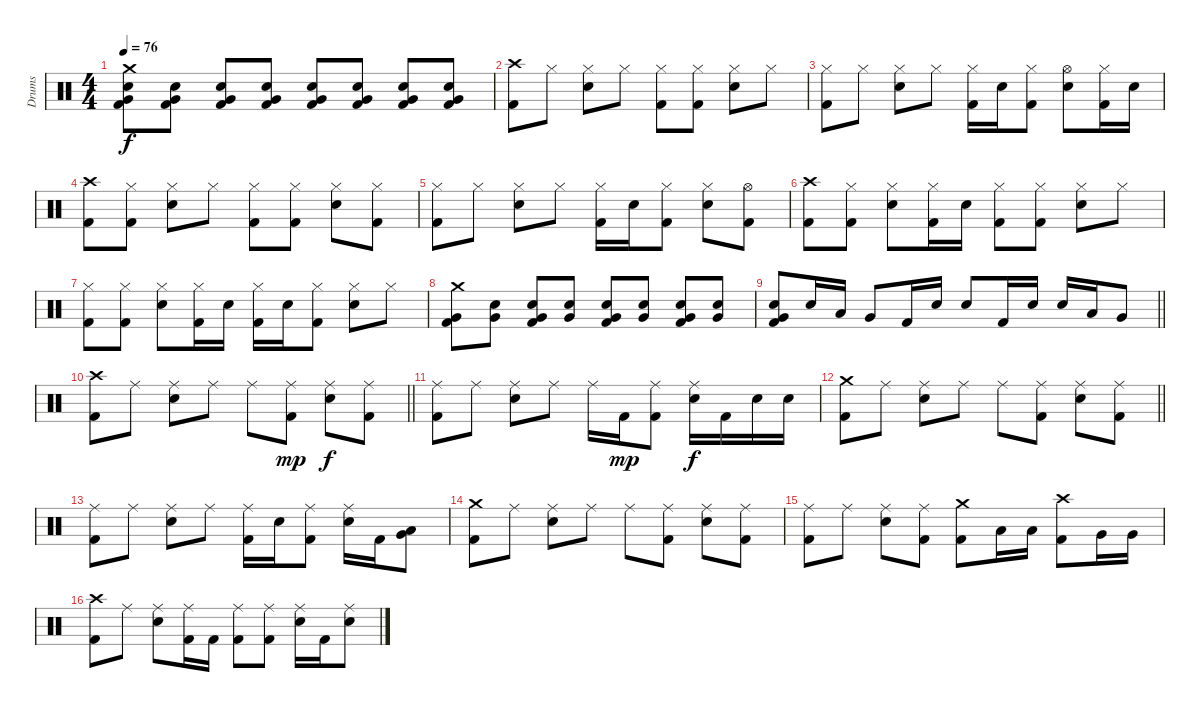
\track ("Drums" "Drums") {instrument percussion}
\staff {score}
\articulation defaults
\ts (4 4)
\tempo 76
\clef neutral
\ks c
("Crash medium (hit)" "Very Low Tom (hit)" "Snare (hit) 2" "Kick (hit) 2").8{dy f} ("Very Low Tom (hit)" "Snare (hit) 2" "Kick (hit) 2").8 ("Very Low Tom (hit)" "Snare (hit) 2" "Kick (hit) 2").8 ("Very Low Tom (hit)" "Snare (hit) 2" "Kick (hit) 2").8 ("Very Low Tom (hit)" "Snare (hit) 2" "Kick (hit) 2").8 ("Very Low Tom (hit)" "Snare (hit) 2" "Kick (hit) 2").8 ("Very Low Tom (hit)" "Snare (hit) 2" "Kick (hit) 2").8 ("Very Low Tom (hit)" "Snare (hit) 2" "Kick (hit) 2").8 |
("Crash high (hit)" "Kick (hit) 2").8 "Hi-Hat (closed)".8 ("Hi-Hat (closed)" "Snare (hit) 2").8 "Hi-Hat (closed)".8 ("Hi-Hat (closed)" "Kick (hit) 2").8 ("Hi-Hat (closed)" "Kick (hit) 2").8 ("Hi-Hat (closed)" "Snare (hit) 2").8 "Hi-Hat (closed)".8 |
("Hi-Hat (closed)" "Kick (hit) 2").8 "Hi-Hat (closed)".8 ("Hi-Hat (closed)" "Snare (hit) 2").8 "Hi-Hat (closed)".8 ("Hi-Hat (closed)" "Kick (hit) 2").16 "Snare (hit) 2".16 ("Hi-Hat (closed)" "Kick (hit) 2").8 ("Hi-Hat (open)" "Snare (hit) 2").8 ("Hi-Hat (closed)" "Kick (hit) 2").16 "Snare (hit) 2".16 |
("Crash high (hit)" "Kick (hit) 2").8 ("Hi-Hat (closed)" "Kick (hit) 2").8 ("Hi-Hat (closed)" "Snare (hit) 2").8 "Hi-Hat (closed)".8 ("Hi-Hat (closed)" "Kick (hit) 2").8 ("Hi-Hat (closed)" "Kick (hit) 2").8 ("Hi-Hat (closed)" "Snare (hit) 2").8 ("Hi-Hat (closed)" "Kick (hit) 2").8 |
("Hi-Hat (closed)" "Kick (hit) 2").8 "Hi-Hat (closed)".8 ("Hi-Hat (closed)" "Snare (hit) 2").8 "Hi-Hat (closed)".8 ("Hi-Hat (closed)" "Kick (hit) 2").16 "Snare (hit) 2".16 ("Hi-Hat (closed)" "Kick (hit) 2").8 ("Hi-Hat (closed)" "Snare (hit) 2").8 ("Hi-Hat (open)" "Kick (hit) 2").8 |
("Crash high (hit)" "Kick (hit) 2").8 ("Hi-Hat (closed)" "Kick (hit) 2").8 ("Hi-Hat (closed)" "Snare (hit) 2").8 ("Hi-Hat (closed)" "Kick (hit) 2").16 "Snare (hit) 2".16 ("Hi-Hat (closed)" "Kick (hit) 2").8 ("Hi-Hat (closed)" "Kick (hit) 2").8 ("Hi-Hat (closed)" "Snare (hit) 2").8 "Hi-Hat (closed)".8 |
("Hi-Hat (closed)" "Kick (hit) 2").8 ("Hi-Hat (closed)" "Kick (hit) 2").8 ("Hi-Hat (closed)" "Snare (hit) 2").8 ("Hi-Hat (closed)" "Kick (hit) 2").16 "Snare (hit) 2".16 ("Hi-Hat (closed)" "Kick (hit) 2").16 "Snare (hit) 2".16 ("Hi-Hat (closed)" "Kick (hit) 2").8 ("Hi-Hat (closed)" "Snare (hit) 2").8 "Hi-Hat (closed)".8 |
("Crash medium (hit)" "Very Low Tom (hit)" "Kick (hit) 2").8 ("Snare (hit) 2" "Very Low Tom (hit)").8 ("Snare (hit) 2" "Very Low Tom (hit)" "Kick (hit) 2").8 ("Snare (hit) 2" "Very Low Tom (hit)").8 ("Snare (hit) 2" "Very Low Tom (hit)" "Kick (hit) 2").8 ("Snare (hit) 2" "Very Low Tom (hit)").8 ("Snare (hit) 2" "Very Low Tom (hit)" "Kick (hit) 2").8 ("Snare (hit) 2" "Very Low Tom (hit)").8 |
\barLineRight lightlight
("Snare (hit) 2" "Very Low Tom (hit)" "Kick (hit) 2").8 "Snare (hit) 2".16 "Low Tom (hit)".16 "Very Low Tom (hit)".8 "Kick (hit) 2".16 "Snare (hit) 2".16 "Snare (hit) 2".8 "Kick (hit) 2".16 "Snare (hit) 2".16 "Snare (hit) 2".16 "Low Tom (hit)".16 "Very Low Tom (hit)".8 |
\barLineRight lightlight
("Crash high (hit)" "Kick (hit) 2").8 "Ride (middle)".8 ("Ride (middle)" "Snare (hit) 2").8 "Ride (middle)".8 "Ride (middle)".8 ("Ride (middle)" "Kick (hit) 2").8{dy mp} ("Ride (middle)" "Snare (hit) 2").8{dy f} ("Ride (middle)" "Kick (hit) 2").8 |
("Ride (middle)" "Kick (hit) 2").8 "Ride (middle)".8 ("Ride (middle)" "Snare (hit) 2").8 "Ride (middle)".8 "Ride (middle)".16 "Kick (hit) 2".16{dy mp} ("Ride (middle)" "Kick (hit) 2").8 ("Ride (middle)" "Snare (hit) 2").16{dy f} "Kick (hit) 2".16 "Snare (hit) 2".16 "Snare (hit) 2".16 |
\barLineRight lightlight
("Crash medium (hit)" "Kick (hit) 2").8 "Ride (middle)".8 ("Ride (middle)" "Snare (hit) 2").8 "Ride (middle)".8 "Ride (middle)".8 ("Ride (middle)" "Kick (hit) 2").8 ("Ride (middle)" "Snare (hit) 2").8 ("Ride (middle)" "Kick (hit) 2").8 |
("Ride (middle)" "Kick (hit) 2").8 "Ride (middle)".8 ("Ride (middle)" "Snare (hit) 2").8 "Ride (middle)".8 ("Ride (middle)" "Kick (hit) 2").16 "Snare (hit) 2".16 ("Ride (middle)" "Kick (hit) 2").8 ("Ride (middle)" "Snare (hit) 2").16 "Kick (hit) 2".16 ("Very Low Tom (hit)" "Low Floor Tom (hit)").8 |
("Crash medium (hit)" "Kick (hit) 2").8 "Ride (middle)".8 ("Ride (middle)" "Snare (hit) 2").8 "Ride (middle)".8 "Ride (middle)".8 ("Ride (middle)" "Kick (hit) 2").8 ("Ride (middle)" "Snare (hit) 2").8 ("Ride (middle)" "Kick (hit) 2").8 |
("Ride (middle)" "Kick (hit) 2").8 "Ride (middle)".8 ("Ride (middle)" "Snare (hit) 2").8 ("Ride (middle)" "Kick (hit) 2").8 ("Crash medium (hit)" "Kick (hit) 2").8 "Low Tom (hit)".16 "Low Tom (hit)".16 ("Crash high (hit)" "Kick (hit) 2").8 "Very Low Tom (hit)".16 "Very Low Tom (hit)".16 |
("Crash high (hit)" "Kick (hit) 2").8 "Ride (middle)".8 ("Ride (middle)" "Snare (hit) 2").8 ("Ride (middle)" "Kick (hit) 2").16 "Kick (hit) 2".16 ("Ride (middle)" "Kick (hit) 2").8 ("Ride (middle)" "Kick (hit) 2").8 ("Ride (middle)" "Snare (hit) 2").16 "Kick (hit) 2".16 ("Ride (middle)" "Snare (hit) 2").8
